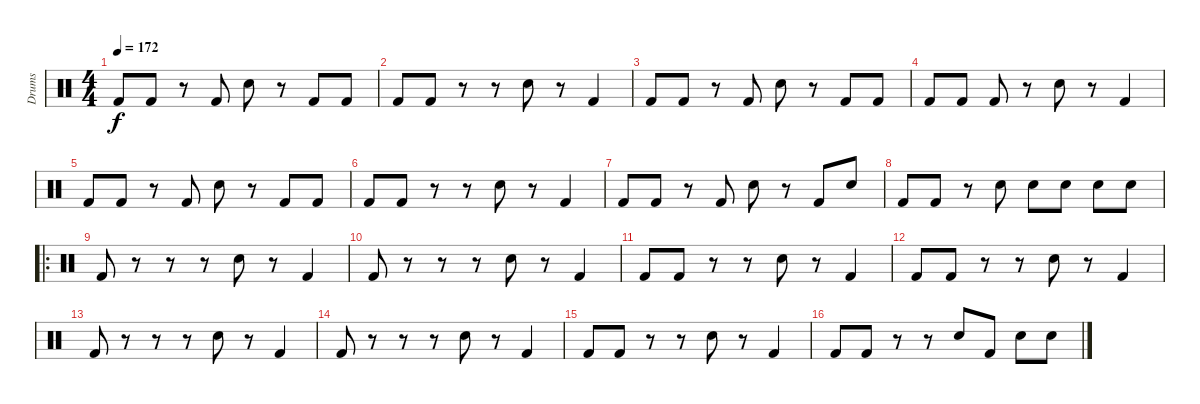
\track ("Drums" "Drums") {instrument percussion}
\staff {score}
\articulation defaults
\ts (4 4)
\tempo 172
\clef neutral
\ks c "Kick (hit) 2".8{dy f} "Kick (hit) 2".8
r.8 "Kick (hit) 2".8 "Snare (hit) 2".8 r.8 "Kick (hit) 2".8 "Kick (hit) 2".8 |
"Kick (hit) 2".8 "Kick (hit) 2".8 r.8 r.8 "Snare (hit) 2".8 r.8 "Kick (hit) 2".4 |
"Kick (hit) 2".8 "Kick (hit) 2".8 r.8 "Kick (hit) 2".8 "Snare (hit) 2".8 r.8 "Kick (hit) 2".8 "Kick (hit) 2".8 |
"Kick (hit) 2".8 "Kick (hit) 2".8 "Kick (hit) 2".8 r.8 "Snare (hit) 2".8 r.8 "Kick (hit) 2".4 |
"Kick (hit) 2".8 "Kick (hit) 2".8 r.8 "Kick (hit) 2".8 "Snare (hit) 2".8 r.8 "Kick (hit) 2".8 "Kick (hit) 2".8 |
"Kick (hit) 2".8 "Kick (hit) 2".8 r.8 r.8 "Snare (hit) 2".8 r.8 "Kick (hit) 2".4 |
"Kick (hit) 2".8 "Kick (hit) 2".8 r.8 "Kick (hit) 2".8 "Snare (hit) 2".8 r.8 "Kick (hit) 2".8 "Snare (hit) 2".8 |
"Kick (hit) 2".8 "Kick (hit) 2".8 r.8 "Snare (hit) 2".8 "Snare (hit) 2".8 "Snare (hit) 2".8 "Snare (hit) 2".8 "Snare (hit) 2".8 |
\ro "Kick (hit) 2".8
r.8 r.8 r.8 "Snare (hit) 2".8 r.8 "Kick (hit) 2".4 |
"Kick (hit) 2".8 r.8 r.8 r.8 "Snare (hit) 2".8 r.8 "Kick (hit) 2".4 |
"Kick (hit) 2".8 "Kick (hit) 2".8 r.8 r.8 "Snare (hit) 2".8 r.8 "Kick (hit) 2".4 |
"Kick (hit) 2".8 "Kick (hit) 2".8 r.8 r.8 "Snare (hit) 2".8 r.8 "Kick (hit) 2".4 |
"Kick (hit) 2".8 r.8 r.8 r.8 "Snare (hit) 2".8 r.8 "Kick (hit) 2".4 |
"Kick (hit) 2".8 r.8 r.8 r.8 "Snare (hit) 2".8 r.8 "Kick (hit) 2".4 |
"Kick (hit) 2".8 "Kick (hit) 2".8 r.8 r.8 "Snare (hit) 2".8 r.8 "Kick (hit) 2".4 |
"Kick (hit) 2".8 "Kick (hit) 2".8 r.8 r.8 "Snare (hit) 2".8 "Kick (hit) 2".8 "Snare (hit) 2".8 "Snare (hit) 2".8
